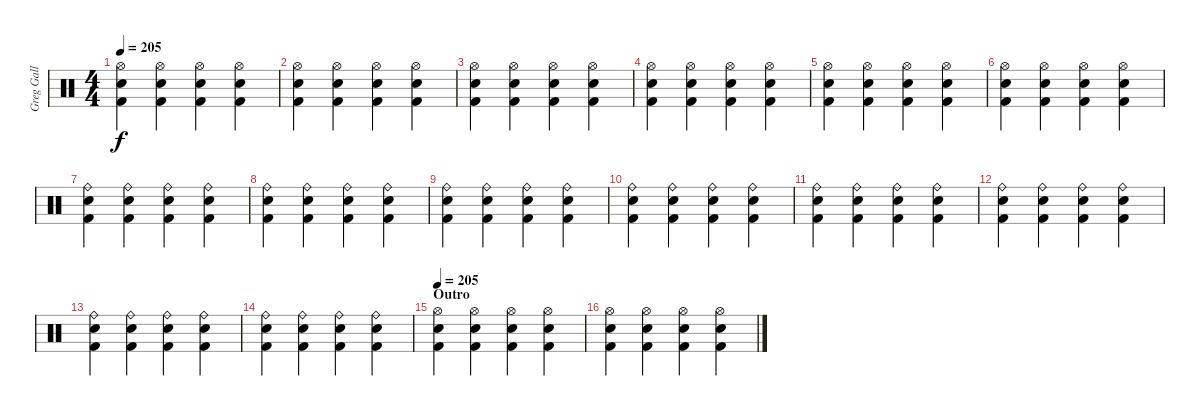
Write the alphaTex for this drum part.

\track ("Greg Gall - Drums" "Greg Gall ") {instrument percussion}
\staff {score}
\articulation defaults
\ts (4 4)
\tempo 205
\clef neutral
\ks c
("Hi-Hat (open)" "Snare (hit) 2" "Kick (hit) 2").4{dy f} ("Hi-Hat (open)" "Snare (hit) 2" "Kick (hit) 2").4 ("Hi-Hat (open)" "Snare (hit) 2" "Kick (hit) 2").4 ("Hi-Hat (open)" "Snare (hit) 2" "Kick (hit) 2").4 |
("Hi-Hat (open)" "Snare (hit) 2" "Kick (hit) 2").4 ("Hi-Hat (open)" "Snare (hit) 2" "Kick (hit) 2").4 ("Hi-Hat (open)" "Snare (hit) 2" "Kick (hit) 2").4 ("Hi-Hat (open)" "Snare (hit) 2" "Kick (hit) 2").4 |
("Hi-Hat (open)" "Snare (hit) 2" "Kick (hit) 2").4 ("Hi-Hat (open)" "Snare (hit) 2" "Kick (hit) 2").4 ("Hi-Hat (open)" "Snare (hit) 2" "Kick (hit) 2").4 ("Hi-Hat (open)" "Snare (hit) 2" "Kick (hit) 2").4 |
("Hi-Hat (open)" "Snare (hit) 2" "Kick (hit) 2").4 ("Hi-Hat (open)" "Snare (hit) 2" "Kick (hit) 2").4 ("Hi-Hat (open)" "Snare (hit) 2" "Kick (hit) 2").4 ("Hi-Hat (open)" "Snare (hit) 2" "Kick (hit) 2").4 |
("Hi-Hat (open)" "Snare (hit) 2" "Kick (hit) 2").4 ("Hi-Hat (open)" "Snare (hit) 2" "Kick (hit) 2").4 ("Hi-Hat (open)" "Snare (hit) 2" "Kick (hit) 2").4 ("Hi-Hat (open)" "Snare (hit) 2" "Kick (hit) 2").4 |
("Hi-Hat (open)" "Snare (hit) 2" "Kick (hit) 2").4 ("Hi-Hat (open)" "Snare (hit) 2" "Kick (hit) 2").4 ("Hi-Hat (open)" "Snare (hit) 2" "Kick (hit) 2").4 ("Hi-Hat (open)" "Snare (hit) 2" "Kick (hit) 2").4 |
("Ride (bell)" "Snare (hit) 2" "Kick (hit) 2").4 ("Ride (bell)" "Snare (hit) 2" "Kick (hit) 2").4 ("Ride (bell)" "Snare (hit) 2" "Kick (hit) 2").4 ("Ride (bell)" "Snare (hit) 2" "Kick (hit) 2").4 |
("Ride (bell)" "Snare (hit) 2" "Kick (hit) 2").4 ("Ride (bell)" "Snare (hit) 2" "Kick (hit) 2").4 ("Ride (bell)" "Snare (hit) 2" "Kick (hit) 2").4 ("Ride (bell)" "Snare (hit) 2" "Kick (hit) 2").4 |
("Ride (bell)" "Snare (hit) 2" "Kick (hit) 2").4 ("Ride (bell)" "Snare (hit) 2" "Kick (hit) 2").4 ("Ride (bell)" "Snare (hit) 2" "Kick (hit) 2").4 ("Ride (bell)" "Snare (hit) 2" "Kick (hit) 2").4 |
("Ride (bell)" "Snare (hit) 2" "Kick (hit) 2").4 ("Ride (bell)" "Snare (hit) 2" "Kick (hit) 2").4 ("Ride (bell)" "Snare (hit) 2" "Kick (hit) 2").4 ("Ride (bell)" "Snare (hit) 2" "Kick (hit) 2").4 |
("Ride (bell)" "Snare (hit) 2" "Kick (hit) 2").4 ("Ride (bell)" "Snare (hit) 2" "Kick (hit) 2").4 ("Ride (bell)" "Snare (hit) 2" "Kick (hit) 2").4 ("Ride (bell)" "Snare (hit) 2" "Kick (hit) 2").4 |
("Ride (bell)" "Snare (hit) 2" "Kick (hit) 2").4 ("Ride (bell)" "Snare (hit) 2" "Kick (hit) 2").4 ("Ride (bell)" "Snare (hit) 2" "Kick (hit) 2").4 ("Ride (bell)" "Snare (hit) 2" "Kick (hit) 2").4 |
("Ride (bell)" "Snare (hit) 2" "Kick (hit) 2").4 ("Ride (bell)" "Snare (hit) 2" "Kick (hit) 2").4 ("Ride (bell)" "Snare (hit) 2" "Kick (hit) 2").4 ("Ride (bell)" "Snare (hit) 2" "Kick (hit) 2").4 |
("Ride (bell)" "Snare (hit) 2" "Kick (hit) 2").4 ("Ride (bell)" "Snare (hit) 2" "Kick (hit) 2").4 ("Ride (bell)" "Snare (hit) 2" "Kick (hit) 2").4 ("Ride (bell)" "Snare (hit) 2" "Kick (hit) 2").4 |
\section ("" "Outro")
\tempo 205
("Hi-Hat (open)" "Snare (hit) 2" "Kick (hit) 2").4 ("Hi-Hat (open)" "Snare (hit) 2" "Kick (hit) 2").4 ("Hi-Hat (open)" "Snare (hit) 2" "Kick (hit) 2").4 ("Hi-Hat (open)" "Snare (hit) 2" "Kick (hit) 2").4 |
("Hi-Hat (open)" "Snare (hit) 2" "Kick (hit) 2").4 ("Hi-Hat (open)" "Snare (hit) 2" "Kick (hit) 2").4 ("Hi-Hat (open)" "Snare (hit) 2" "Kick (hit) 2").4 ("Hi-Hat (open)" "Snare (hit) 2" "Kick (hit) 2").4
